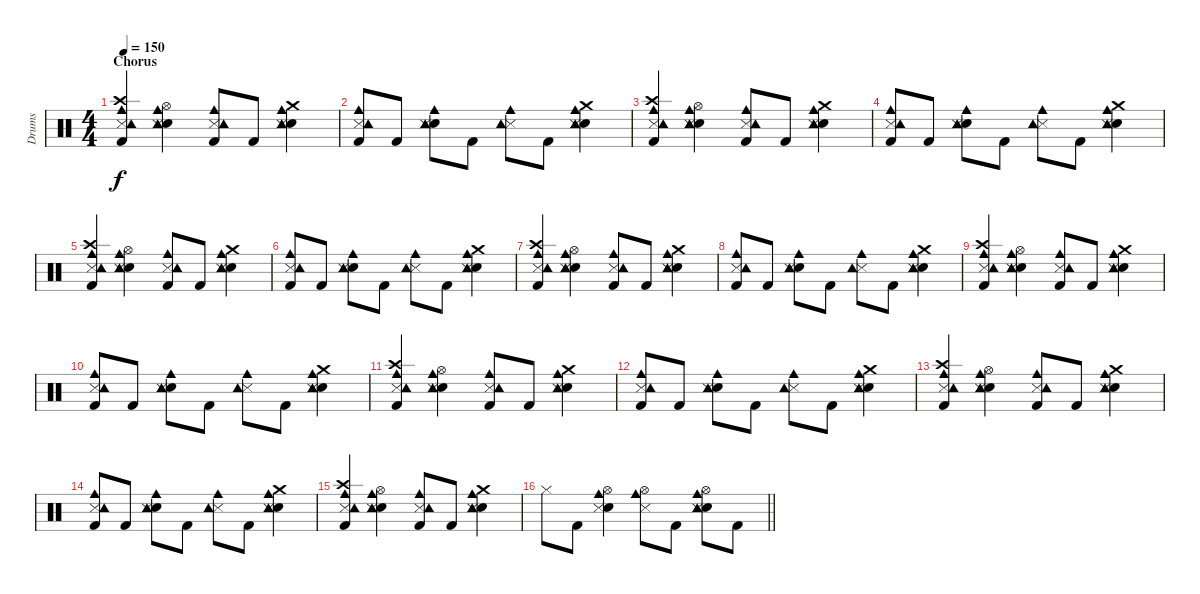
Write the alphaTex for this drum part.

\track ("Drums" "Drums") {instrument percussion}
\staff {score}
\articulation defaults
\ts (4 4)
\section ("" "Chorus")
\tempo 150
\clef neutral
\ks c
("Kick (hit) 2" "Crash high (hit)" "Cowbell medium (hit)" "Snare (side stick) 3" "Tambourine (hit)").4{dy f} ("Electric Snare (hit)" "Hi-Hat (open)" "Cowbell medium (hit)" "Snare (side stick) 3" "Tambourine (hit)").4 ("Kick (hit) 2" "Cowbell medium (hit)" "Snare (side stick) 3" "Tambourine (hit)").8 "Kick (hit) 2".8 ("Electric Snare (hit)" "Crash medium (hit)" "Cowbell medium (hit)" "Snare (side stick) 3" "Tambourine (hit)").4 |
("Kick (hit) 2" "Cowbell medium (hit)" "Snare (side stick) 3" "Tambourine (hit)").8 "Kick (hit) 2".8 ("Electric Snare (hit)" "Cowbell medium (hit)" "Snare (side stick) 3" "Tambourine (hit)").8 "Kick (hit) 2".8 ("Cowbell medium (hit)" "Snare (side stick) 3" "Tambourine (hit)").8 "Kick (hit) 2".8 ("Electric Snare (hit)" "Crash medium (hit)" "Cowbell medium (hit)" "Snare (side stick) 3" "Tambourine (hit)").4 |
("Kick (hit) 2" "Crash high (hit)" "Cowbell medium (hit)" "Snare (side stick) 3" "Tambourine (hit)").4 ("Electric Snare (hit)" "Hi-Hat (open)" "Cowbell medium (hit)" "Snare (side stick) 3" "Tambourine (hit)").4 ("Kick (hit) 2" "Cowbell medium (hit)" "Snare (side stick) 3" "Tambourine (hit)").8 "Kick (hit) 2".8 ("Electric Snare (hit)" "Crash medium (hit)" "Cowbell medium (hit)" "Snare (side stick) 3" "Tambourine (hit)").4 |
("Kick (hit) 2" "Cowbell medium (hit)" "Snare (side stick) 3" "Tambourine (hit)").8 "Kick (hit) 2".8 ("Electric Snare (hit)" "Cowbell medium (hit)" "Snare (side stick) 3" "Tambourine (hit)").8 "Kick (hit) 2".8 ("Cowbell medium (hit)" "Snare (side stick) 3" "Tambourine (hit)").8 "Kick (hit) 2".8 ("Electric Snare (hit)" "Crash medium (hit)" "Cowbell medium (hit)" "Snare (side stick) 3" "Tambourine (hit)").4 |
("Kick (hit) 2" "Crash high (hit)" "Cowbell medium (hit)" "Snare (side stick) 3" "Tambourine (hit)").4 ("Electric Snare (hit)" "Hi-Hat (open)" "Cowbell medium (hit)" "Snare (side stick) 3" "Tambourine (hit)").4 ("Kick (hit) 2" "Cowbell medium (hit)" "Snare (side stick) 3" "Tambourine (hit)").8 "Kick (hit) 2".8 ("Electric Snare (hit)" "Crash medium (hit)" "Cowbell medium (hit)" "Snare (side stick) 3" "Tambourine (hit)").4 |
("Kick (hit) 2" "Cowbell medium (hit)" "Snare (side stick) 3" "Tambourine (hit)").8 "Kick (hit) 2".8 ("Electric Snare (hit)" "Cowbell medium (hit)" "Snare (side stick) 3" "Tambourine (hit)").8 "Kick (hit) 2".8 ("Cowbell medium (hit)" "Snare (side stick) 3" "Tambourine (hit)").8 "Kick (hit) 2".8 ("Electric Snare (hit)" "Crash medium (hit)" "Cowbell medium (hit)" "Snare (side stick) 3" "Tambourine (hit)").4 |
("Kick (hit) 2" "Crash high (hit)" "Cowbell medium (hit)" "Snare (side stick) 3" "Tambourine (hit)").4 ("Electric Snare (hit)" "Hi-Hat (open)" "Cowbell medium (hit)" "Snare (side stick) 3" "Tambourine (hit)").4 ("Kick (hit) 2" "Cowbell medium (hit)" "Snare (side stick) 3" "Tambourine (hit)").8 "Kick (hit) 2".8 ("Electric Snare (hit)" "Crash medium (hit)" "Cowbell medium (hit)" "Snare (side stick) 3" "Tambourine (hit)").4 |
("Kick (hit) 2" "Cowbell medium (hit)" "Snare (side stick) 3" "Tambourine (hit)").8 "Kick (hit) 2".8 ("Electric Snare (hit)" "Cowbell medium (hit)" "Snare (side stick) 3" "Tambourine (hit)").8 "Kick (hit) 2".8 ("Cowbell medium (hit)" "Snare (side stick) 3" "Tambourine (hit)").8 "Kick (hit) 2".8 ("Electric Snare (hit)" "Crash medium (hit)" "Cowbell medium (hit)" "Snare (side stick) 3" "Tambourine (hit)").4 |
("Kick (hit) 2" "Crash high (hit)" "Cowbell medium (hit)" "Snare (side stick) 3" "Tambourine (hit)").4 ("Electric Snare (hit)" "Hi-Hat (open)" "Cowbell medium (hit)" "Snare (side stick) 3" "Tambourine (hit)").4 ("Kick (hit) 2" "Cowbell medium (hit)" "Snare (side stick) 3" "Tambourine (hit)").8 "Kick (hit) 2".8 ("Electric Snare (hit)" "Crash medium (hit)" "Cowbell medium (hit)" "Snare (side stick) 3" "Tambourine (hit)").4 |
("Kick (hit) 2" "Cowbell medium (hit)" "Snare (side stick) 3" "Tambourine (hit)").8 "Kick (hit) 2".8 ("Electric Snare (hit)" "Cowbell medium (hit)" "Snare (side stick) 3" "Tambourine (hit)").8 "Kick (hit) 2".8 ("Cowbell medium (hit)" "Snare (side stick) 3" "Tambourine (hit)").8 "Kick (hit) 2".8 ("Electric Snare (hit)" "Crash medium (hit)" "Cowbell medium (hit)" "Snare (side stick) 3" "Tambourine (hit)").4 |
("Kick (hit) 2" "Crash high (hit)" "Cowbell medium (hit)" "Snare (side stick) 3" "Tambourine (hit)").4 ("Electric Snare (hit)" "Hi-Hat (open)" "Cowbell medium (hit)" "Snare (side stick) 3" "Tambourine (hit)").4 ("Kick (hit) 2" "Cowbell medium (hit)" "Snare (side stick) 3" "Tambourine (hit)").8 "Kick (hit) 2".8 ("Electric Snare (hit)" "Crash medium (hit)" "Cowbell medium (hit)" "Snare (side stick) 3" "Tambourine (hit)").4 |
("Kick (hit) 2" "Cowbell medium (hit)" "Snare (side stick) 3" "Tambourine (hit)").8 "Kick (hit) 2".8 ("Electric Snare (hit)" "Cowbell medium (hit)" "Snare (side stick) 3" "Tambourine (hit)").8 "Kick (hit) 2".8 ("Cowbell medium (hit)" "Snare (side stick) 3" "Tambourine (hit)").8 "Kick (hit) 2".8 ("Electric Snare (hit)" "Crash medium (hit)" "Cowbell medium (hit)" "Snare (side stick) 3" "Tambourine (hit)").4 |
("Kick (hit) 2" "Crash high (hit)" "Cowbell medium (hit)" "Snare (side stick) 3" "Tambourine (hit)").4 ("Electric Snare (hit)" "Hi-Hat (open)" "Cowbell medium (hit)" "Snare (side stick) 3" "Tambourine (hit)").4 ("Kick (hit) 2" "Cowbell medium (hit)" "Snare (side stick) 3" "Tambourine (hit)").8 "Kick (hit) 2".8 ("Electric Snare (hit)" "Crash medium (hit)" "Cowbell medium (hit)" "Snare (side stick) 3" "Tambourine (hit)").4 |
("Kick (hit) 2" "Cowbell medium (hit)" "Snare (side stick) 3" "Tambourine (hit)").8 "Kick (hit) 2".8 ("Electric Snare (hit)" "Cowbell medium (hit)" "Snare (side stick) 3" "Tambourine (hit)").8 "Kick (hit) 2".8 ("Cowbell medium (hit)" "Snare (side stick) 3" "Tambourine (hit)").8 "Kick (hit) 2".8 ("Electric Snare (hit)" "Crash medium (hit)" "Cowbell medium (hit)" "Snare (side stick) 3" "Tambourine (hit)").4 |
("Kick (hit) 2" "Crash high (hit)" "Cowbell medium (hit)" "Snare (side stick) 3" "Tambourine (hit)").4 ("Electric Snare (hit)" "Hi-Hat (open)" "Cowbell medium (hit)" "Snare (side stick) 3" "Tambourine (hit)").4 ("Kick (hit) 2" "Cowbell medium (hit)" "Snare (side stick) 3" "Tambourine (hit)").8 "Kick (hit) 2".8 ("Electric Snare (hit)" "Crash medium (hit)" "Cowbell medium (hit)" "Snare (side stick) 3" "Tambourine (hit)").4 |
\barLineRight lightlight "Hi-Hat (closed)".8 "Kick (hit) 2".8
("Electric Snare (hit)" "Hi-Hat (open)" "Cowbell medium (hit)" "Snare (side stick) 3").4 ("Hi-Hat (open)" "Cowbell medium (hit)" "Snare (side stick) 3").8 "Kick (hit) 2".8 ("Electric Snare (hit)" "Hi-Hat (open)" "Cowbell medium (hit)" "Snare (side stick) 3" "Tambourine (hit)").8 "Kick (hit) 2".8
